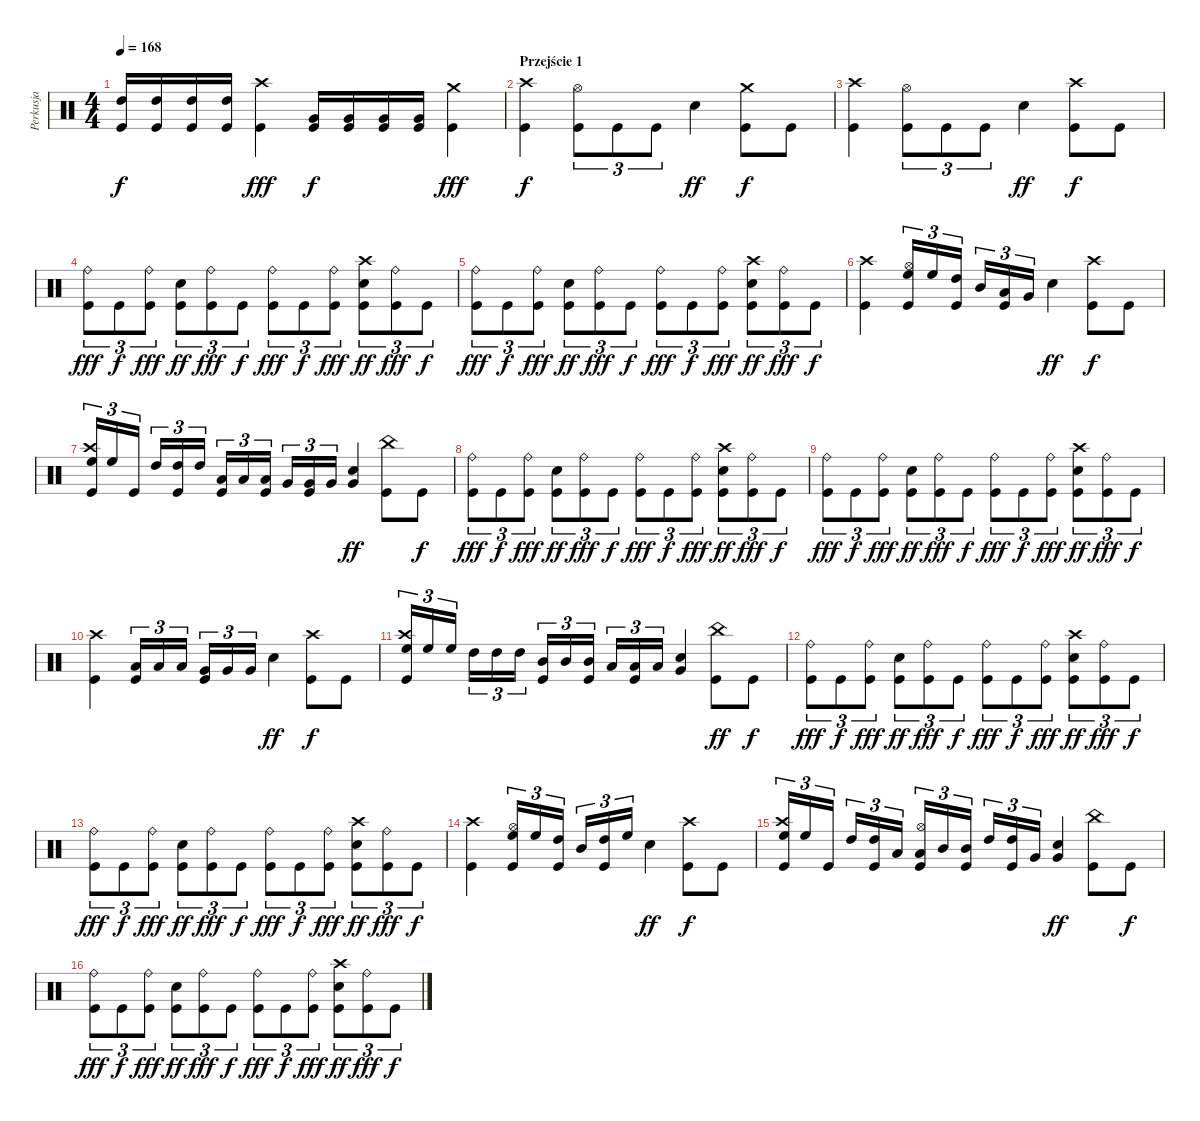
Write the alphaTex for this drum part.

\track ("Perkusja" "Perkusja") {instrument percussion}
\staff {score}
\articulation defaults
\ts (4 4)
\tempo 168
\clef neutral
\ks c
("High Tom (hit)" "Kick (hit)").16{dy f} ("High Tom (hit)" "Kick (hit)").16 ("High Tom (hit)" "Kick (hit)").16 ("High Tom (hit)" "Kick (hit)").16 ("Crash high (hit)" "Kick (hit)").4{dy fff} ("Very Low Tom (hit)" "Kick (hit)").16{dy f} ("Very Low Tom (hit)" "Kick (hit)").16 ("Very Low Tom (hit)" "Kick (hit)").16 ("Very Low Tom (hit)" "Kick (hit)").16 ("Crash medium (hit)" "Kick (hit)").4{dy fff} |
\section ("" "Przejście 1")
("Crash high (hit)" "Kick (hit)").4{dy f} ("Hi-Hat (open)" "Kick (hit)").8{tu (3 2)} "Kick (hit)".8{tu (3 2)} "Kick (hit)".8{tu (3 2)} "Snare (hit) 2".4{dy ff} ("Crash medium (hit)" "Kick (hit)").8{dy f} "Kick (hit)".8 |
("Crash high (hit)" "Kick (hit)").4 ("Hi-Hat (open)" "Kick (hit)").8{tu (3 2)} "Kick (hit)".8{tu (3 2)} "Kick (hit)".8{tu (3 2)} "Snare (hit) 2".4{dy ff} ("Crash high (hit)" "Kick (hit)").8{dy f} "Kick (hit)".8 |
("Ride (bell)" "Kick (hit)").8{tu (3 2) dy fff} "Kick (hit)".8{tu (3 2) dy f} ("Ride (bell)" "Kick (hit)").8{tu (3 2) dy fff} ("Snare (hit) 2" "Kick (hit)").8{tu (3 2) dy ff} ("Ride (bell)" "Kick (hit)").8{tu (3 2) dy fff} "Kick (hit)".8{tu (3 2) dy f} ("Ride (bell)" "Kick (hit)").8{tu (3 2) dy fff} "Kick (hit)".8{tu (3 2) dy f} ("Ride (bell)" "Kick (hit)").8{tu (3 2) dy fff} ("Crash high (hit)" "Snare (hit) 2" "Kick (hit)").8{tu (3 2) dy ff} ("Ride (bell)" "Kick (hit)").8{tu (3 2) dy fff} "Kick (hit)".8{tu (3 2) dy f} |
("Ride (bell)" "Kick (hit)").8{tu (3 2) dy fff} "Kick (hit)".8{tu (3 2) dy f} ("Ride (bell)" "Kick (hit)").8{tu (3 2) dy fff} ("Snare (hit) 2" "Kick (hit)").8{tu (3 2) dy ff} ("Ride (bell)" "Kick (hit)").8{tu (3 2) dy fff} "Kick (hit)".8{tu (3 2) dy f} ("Ride (bell)" "Kick (hit)").8{tu (3 2) dy fff} "Kick (hit)".8{tu (3 2) dy f} ("Ride (bell)" "Kick (hit)").8{tu (3 2) dy fff} ("Crash high (hit)" "Snare (hit) 2" "Kick (hit)").8{tu (3 2) dy ff} ("Ride (bell)" "Kick (hit)").8{tu (3 2) dy fff} "Kick (hit)".8{tu (3 2) dy f} |
("Crash high (hit)" "Kick (hit)").4 ("Hi-Hat (open)" "High Floor Tom (hit)" "Kick (hit)").16{tu (3 2)} "High Floor Tom (hit)".16{tu (3 2)} ("High Tom (hit)" "Kick (hit)").16{tu (3 2)} "Mid Tom (hit)".16{tu (3 2)} ("Low Tom (hit)" "Kick (hit)").16{tu (3 2)} "Very Low Tom (hit)".16{tu (3 2)} "Snare (hit) 2".4{dy ff} ("Crash high (hit)" "Kick (hit)").8{dy f} "Kick (hit)".8 |
("Crash high (hit)" "High Floor Tom (hit)" "Kick (hit)").16{tu (3 2)} "High Floor Tom (hit)".16{tu (3 2)} "Kick (hit)".16{tu (3 2)} "High Tom (hit)".16{tu (3 2)} ("High Tom (hit)" "Kick (hit)").16{tu (3 2)} "High Tom (hit)".16{tu (3 2)} ("Low Tom (hit)" "Kick (hit)").16{tu (3 2)} "Low Tom (hit)".16{tu (3 2)} ("Low Tom (hit)" "Kick (hit)").16{tu (3 2)} "Very Low Tom (hit)".16{tu (3 2)} ("Very Low Tom (hit)" "Kick (hit)").16{tu (3 2)} "Very Low Tom (hit)".16{tu (3 2)} ("Very Low Tom (hit)" "Snare (hit) 2").4{dy ff} ("China (hit)" "Kick (hit)").8 "Kick (hit)".8{dy f} |
("Ride (bell)" "Kick (hit)").8{tu (3 2) dy fff} "Kick (hit)".8{tu (3 2) dy f} ("Ride (bell)" "Kick (hit)").8{tu (3 2) dy fff} ("Snare (hit) 2" "Kick (hit)").8{tu (3 2) dy ff} ("Ride (bell)" "Kick (hit)").8{tu (3 2) dy fff} "Kick (hit)".8{tu (3 2) dy f} ("Ride (bell)" "Kick (hit)").8{tu (3 2) dy fff} "Kick (hit)".8{tu (3 2) dy f} ("Ride (bell)" "Kick (hit)").8{tu (3 2) dy fff} ("Crash high (hit)" "Snare (hit) 2" "Kick (hit)").8{tu (3 2) dy ff} ("Ride (bell)" "Kick (hit)").8{tu (3 2) dy fff} "Kick (hit)".8{tu (3 2) dy f} |
("Ride (bell)" "Kick (hit)").8{tu (3 2) dy fff} "Kick (hit)".8{tu (3 2) dy f} ("Ride (bell)" "Kick (hit)").8{tu (3 2) dy fff} ("Snare (hit) 2" "Kick (hit)").8{tu (3 2) dy ff} ("Ride (bell)" "Kick (hit)").8{tu (3 2) dy fff} "Kick (hit)".8{tu (3 2) dy f} ("Ride (bell)" "Kick (hit)").8{tu (3 2) dy fff} "Kick (hit)".8{tu (3 2) dy f} ("Ride (bell)" "Kick (hit)").8{tu (3 2) dy fff} ("Crash high (hit)" "Snare (hit) 2" "Kick (hit)").8{tu (3 2) dy ff} ("Ride (bell)" "Kick (hit)").8{tu (3 2) dy fff} "Kick (hit)".8{tu (3 2) dy f} |
("Crash high (hit)" "Kick (hit)").4 ("Low Tom (hit)" "Kick (hit)").16{tu (3 2)} "Low Tom (hit)".16{tu (3 2)} "Low Tom (hit)".16{tu (3 2)} ("Very Low Tom (hit)" "Kick (hit)").16{tu (3 2)} "Very Low Tom (hit)".16{tu (3 2)} "Very Low Tom (hit)".16{tu (3 2)} "Snare (hit) 2".4{dy ff} ("Crash high (hit)" "Kick (hit)").8{dy f} "Kick (hit)".8 |
("Crash high (hit)" "High Floor Tom (hit)" "Kick (hit)").16{tu (3 2)} "High Floor Tom (hit)".16{tu (3 2)} "High Floor Tom (hit)".16{tu (3 2)} "High Tom (hit)".16{tu (3 2)} "High Tom (hit)".16{tu (3 2)} "High Tom (hit)".16{tu (3 2)} ("Mid Tom (hit)" "Kick (hit)").16{tu (3 2)} "Mid Tom (hit)".16{tu (3 2)} ("Mid Tom (hit)" "Kick (hit)").16{tu (3 2)} "Low Tom (hit)".16{tu (3 2)} ("Low Tom (hit)" "Kick (hit)").16{tu (3 2)} "Low Tom (hit)".16{tu (3 2)} ("Very Low Tom (hit)" "Snare (hit) 2").4 ("China (hit)" "Kick (hit)").8{dy ff} "Kick (hit)".8{dy f} |
("Ride (bell)" "Kick (hit)").8{tu (3 2) dy fff} "Kick (hit)".8{tu (3 2) dy f} ("Ride (bell)" "Kick (hit)").8{tu (3 2) dy fff} ("Snare (hit) 2" "Kick (hit)").8{tu (3 2) dy ff} ("Ride (bell)" "Kick (hit)").8{tu (3 2) dy fff} "Kick (hit)".8{tu (3 2) dy f} ("Ride (bell)" "Kick (hit)").8{tu (3 2) dy fff} "Kick (hit)".8{tu (3 2) dy f} ("Ride (bell)" "Kick (hit)").8{tu (3 2) dy fff} ("Crash high (hit)" "Snare (hit) 2" "Kick (hit)").8{tu (3 2) dy ff} ("Ride (bell)" "Kick (hit)").8{tu (3 2) dy fff} "Kick (hit)".8{tu (3 2) dy f} |
("Ride (bell)" "Kick (hit)").8{tu (3 2) dy fff} "Kick (hit)".8{tu (3 2) dy f} ("Ride (bell)" "Kick (hit)").8{tu (3 2) dy fff} ("Snare (hit) 2" "Kick (hit)").8{tu (3 2) dy ff} ("Ride (bell)" "Kick (hit)").8{tu (3 2) dy fff} "Kick (hit)".8{tu (3 2) dy f} ("Ride (bell)" "Kick (hit)").8{tu (3 2) dy fff} "Kick (hit)".8{tu (3 2) dy f} ("Ride (bell)" "Kick (hit)").8{tu (3 2) dy fff} ("Crash high (hit)" "Snare (hit) 2" "Kick (hit)").8{tu (3 2) dy ff} ("Ride (bell)" "Kick (hit)").8{tu (3 2) dy fff} "Kick (hit)".8{tu (3 2) dy f} |
("Crash high (hit)" "Kick (hit)").4 ("Hi-Hat (open)" "High Floor Tom (hit)" "Kick (hit)").16{tu (3 2)} "High Floor Tom (hit)".16{tu (3 2)} ("High Tom (hit)" "Kick (hit)").16{tu (3 2)} "Mid Tom (hit)".16{tu (3 2)} ("High Tom (hit)" "Kick (hit)").16{tu (3 2)} "High Floor Tom (hit)".16{tu (3 2)} "Snare (hit) 2".4{dy ff} ("Crash high (hit)" "Kick (hit)").8{dy f} "Kick (hit)".8 |
("Crash high (hit)" "High Floor Tom (hit)" "Kick (hit)").16{tu (3 2)} "High Floor Tom (hit)".16{tu (3 2)} "Kick (hit)".16{tu (3 2)} "High Tom (hit)".16{tu (3 2)} ("High Tom (hit)" "Kick (hit)").16{tu (3 2)} "Low Tom (hit)".16{tu (3 2)} ("Hi-Hat (open)" "Low Tom (hit)" "Kick (hit)").16{tu (3 2)} "Mid Tom (hit)".16{tu (3 2)} ("Mid Tom (hit)" "Kick (hit)").16{tu (3 2)} "High Tom (hit)".16{tu (3 2)} ("High Tom (hit)" "Kick (hit)").16{tu (3 2)} "Very Low Tom (hit)".16{tu (3 2)} ("Very Low Tom (hit)" "Snare (hit) 2").4{dy ff} ("China (hit)" "Kick (hit)").8 "Kick (hit)".8{dy f} |
("Ride (bell)" "Kick (hit)").8{tu (3 2) dy fff} "Kick (hit)".8{tu (3 2) dy f} ("Ride (bell)" "Kick (hit)").8{tu (3 2) dy fff} ("Snare (hit) 2" "Kick (hit)").8{tu (3 2) dy ff} ("Ride (bell)" "Kick (hit)").8{tu (3 2) dy fff} "Kick (hit)".8{tu (3 2) dy f} ("Ride (bell)" "Kick (hit)").8{tu (3 2) dy fff} "Kick (hit)".8{tu (3 2) dy f} ("Ride (bell)" "Kick (hit)").8{tu (3 2) dy fff} ("Crash high (hit)" "Snare (hit) 2" "Kick (hit)").8{tu (3 2) dy ff} ("Ride (bell)" "Kick (hit)").8{tu (3 2) dy fff} "Kick (hit)".8{tu (3 2) dy f}
